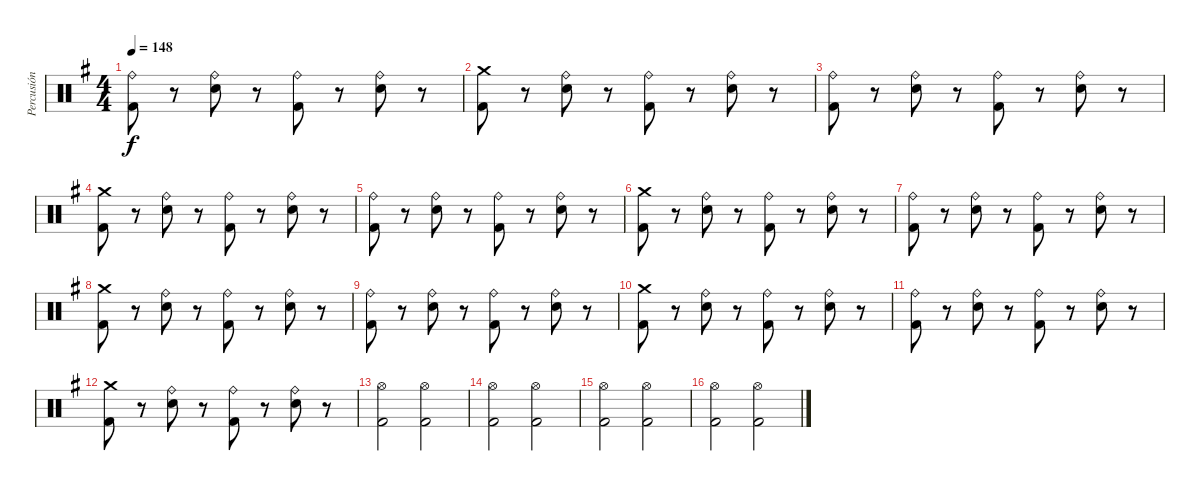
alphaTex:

\track ("Percusión" "Percusión") {instrument percussion}
\staff {score}
\articulation defaults
\ts (4 4)
\tempo 148
\clef neutral
\ks g
("Ride (bell)" "Kick (hit) 2").8{dy f} r.8 ("Ride (bell)" "Snare (hit) 2").8 r.8 ("Ride (bell)" "Kick (hit) 2").8 r.8 ("Ride (bell)" "Snare (hit) 2").8 r.8 |
("Crash medium (hit)" "Kick (hit) 2").8 r.8 ("Ride (bell)" "Snare (hit) 2").8 r.8 ("Ride (bell)" "Kick (hit) 2").8 r.8 ("Ride (bell)" "Snare (hit) 2").8 r.8 |
("Ride (bell)" "Kick (hit) 2").8 r.8 ("Ride (bell)" "Snare (hit) 2").8 r.8 ("Ride (bell)" "Kick (hit) 2").8 r.8 ("Ride (bell)" "Snare (hit) 2").8 r.8 |
("Crash medium (hit)" "Kick (hit) 2").8 r.8 ("Ride (bell)" "Snare (hit) 2").8 r.8 ("Ride (bell)" "Kick (hit) 2").8 r.8 ("Ride (bell)" "Snare (hit) 2").8 r.8 |
("Ride (bell)" "Kick (hit) 2").8 r.8 ("Ride (bell)" "Snare (hit) 2").8 r.8 ("Ride (bell)" "Kick (hit) 2").8 r.8 ("Ride (bell)" "Snare (hit) 2").8 r.8 |
("Crash medium (hit)" "Kick (hit) 2").8 r.8 ("Ride (bell)" "Snare (hit) 2").8 r.8 ("Ride (bell)" "Kick (hit) 2").8 r.8 ("Ride (bell)" "Snare (hit) 2").8 r.8 |
("Ride (bell)" "Kick (hit) 2").8 r.8 ("Ride (bell)" "Snare (hit) 2").8 r.8 ("Ride (bell)" "Kick (hit) 2").8 r.8 ("Ride (bell)" "Snare (hit) 2").8 r.8 |
("Crash medium (hit)" "Kick (hit) 2").8 r.8 ("Ride (bell)" "Snare (hit) 2").8 r.8 ("Ride (bell)" "Kick (hit) 2").8 r.8 ("Ride (bell)" "Snare (hit) 2").8 r.8 |
("Ride (bell)" "Kick (hit) 2").8 r.8 ("Ride (bell)" "Snare (hit) 2").8 r.8 ("Ride (bell)" "Kick (hit) 2").8 r.8 ("Ride (bell)" "Snare (hit) 2").8 r.8 |
("Crash medium (hit)" "Kick (hit) 2").8 r.8 ("Ride (bell)" "Snare (hit) 2").8 r.8 ("Ride (bell)" "Kick (hit) 2").8 r.8 ("Ride (bell)" "Snare (hit) 2").8 r.8 |
("Ride (bell)" "Kick (hit) 2").8 r.8 ("Ride (bell)" "Snare (hit) 2").8 r.8 ("Ride (bell)" "Kick (hit) 2").8 r.8 ("Ride (bell)" "Snare (hit) 2").8 r.8 |
("Crash medium (hit)" "Kick (hit) 2").8 r.8 ("Ride (bell)" "Snare (hit) 2").8 r.8 ("Ride (bell)" "Kick (hit) 2").8 r.8 ("Ride (bell)" "Snare (hit) 2").8 r.8 |
("Kick (hit) 2" "Hi-Hat (open)").2 ("Kick (hit) 2" "Hi-Hat (open)").2 |
("Kick (hit) 2" "Hi-Hat (open)").2 ("Kick (hit) 2" "Hi-Hat (open)").2 |
("Kick (hit) 2" "Hi-Hat (open)").2 ("Kick (hit) 2" "Hi-Hat (open)").2 |
("Kick (hit) 2" "Hi-Hat (open)").2 ("Kick (hit) 2" "Hi-Hat (open)").2
